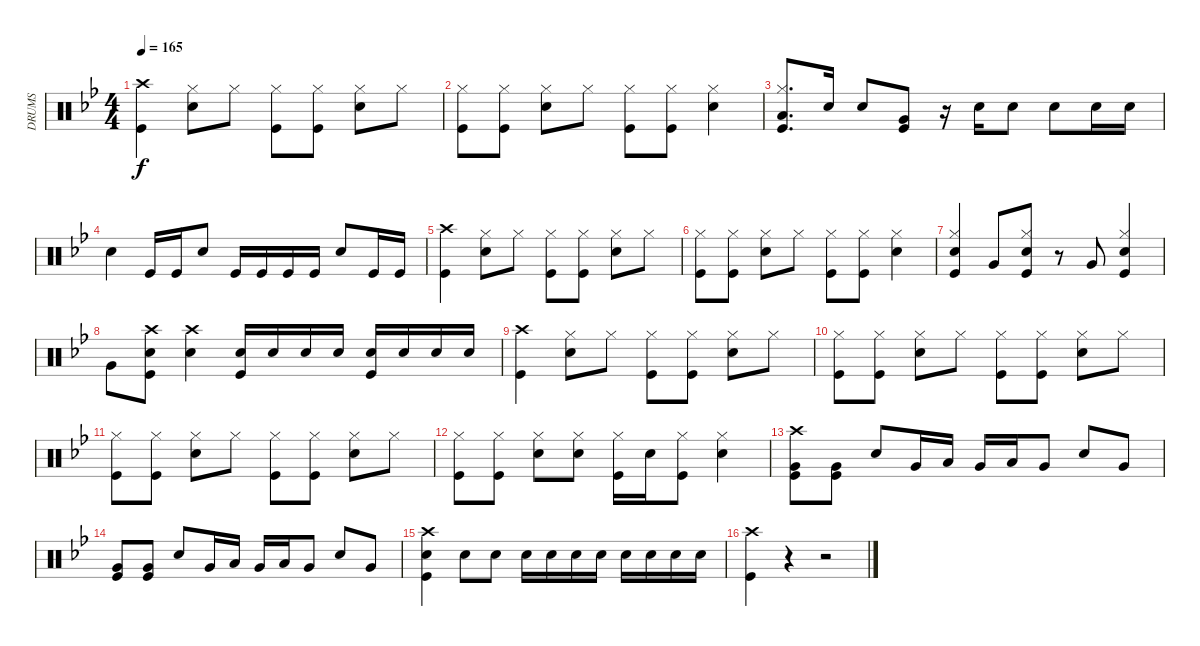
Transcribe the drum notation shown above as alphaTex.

\track ("DRUMS" "DRUMS") {instrument percussion}
\staff {score}
\articulation defaults
\ts (4 4)
\tempo 165
\clef neutral
\ks bb
("Crash high (hit)" "Kick (hit)").4{dy f} ("Hi-Hat (closed)" "Electric Snare (hit)").8 "Hi-Hat (closed)".8 ("Hi-Hat (closed)" "Kick (hit)").8 ("Hi-Hat (closed)" "Kick (hit)").8 ("Hi-Hat (closed)" "Electric Snare (hit)").8 "Hi-Hat (closed)".8 |
("Hi-Hat (closed)" "Kick (hit)").8 ("Hi-Hat (closed)" "Kick (hit)").8 ("Hi-Hat (closed)" "Electric Snare (hit)").8 "Hi-Hat (closed)".8 ("Hi-Hat (closed)" "Kick (hit)").8 ("Hi-Hat (closed)" "Kick (hit)").8 ("Hi-Hat (closed)" "Electric Snare (hit)").4 |
("Hi-Hat (closed)" "Low Tom (hit)" "Kick (hit)").8{d} "Electric Snare (hit)".16 "Electric Snare (hit)".8 ("Very Low Tom (hit)" "Kick (hit)").8 r.16 "Electric Snare (hit)".16 "Electric Snare (hit)".8 "Electric Snare (hit)".8 "Electric Snare (hit)".16 "Electric Snare (hit)".16 |
"Electric Snare (hit)".4 "Kick (hit)".16 "Kick (hit)".16 "Electric Snare (hit)".8 "Kick (hit)".16 "Kick (hit)".16 "Kick (hit)".16 "Kick (hit)".16 "Electric Snare (hit)".8 "Kick (hit)".16 "Kick (hit)".16 |
("Crash high (hit)" "Kick (hit)").4 ("Hi-Hat (closed)" "Electric Snare (hit)").8 "Hi-Hat (closed)".8 ("Hi-Hat (closed)" "Kick (hit)").8 ("Hi-Hat (closed)" "Kick (hit)").8 ("Hi-Hat (closed)" "Electric Snare (hit)").8 "Hi-Hat (closed)".8 |
("Hi-Hat (closed)" "Kick (hit)").8 ("Hi-Hat (closed)" "Kick (hit)").8 ("Hi-Hat (closed)" "Electric Snare (hit)").8 "Hi-Hat (closed)".8 ("Hi-Hat (closed)" "Kick (hit)").8 ("Hi-Hat (closed)" "Kick (hit)").8 ("Hi-Hat (closed)" "Electric Snare (hit)").4 |
("Hi-Hat (closed)" "Electric Snare (hit)" "Kick (hit)").4 "Very Low Tom (hit)".8 ("Hi-Hat (closed)" "Electric Snare (hit)" "Kick (hit)").8 r.8 "Very Low Tom (hit)".8 ("Hi-Hat (closed)" "Electric Snare (hit)" "Kick (hit)").4 |
"Very Low Tom (hit)".8 ("Crash high (hit)" "Electric Snare (hit)" "Kick (hit)").8 ("Crash high (hit)" "Electric Snare (hit)").4 ("Electric Snare (hit)" "Kick (hit)").16 "Electric Snare (hit)".16 "Electric Snare (hit)".16 "Electric Snare (hit)".16 ("Electric Snare (hit)" "Kick (hit)").16 "Electric Snare (hit)".16 "Electric Snare (hit)".16 "Electric Snare (hit)".16 |
("Crash high (hit)" "Kick (hit)").4 ("Hi-Hat (closed)" "Electric Snare (hit)").8 "Hi-Hat (closed)".8 ("Hi-Hat (closed)" "Kick (hit)").8 ("Hi-Hat (closed)" "Kick (hit)").8 ("Hi-Hat (closed)" "Electric Snare (hit)").8 "Hi-Hat (closed)".8 |
("Hi-Hat (closed)" "Kick (hit)").8 ("Hi-Hat (closed)" "Kick (hit)").8 ("Hi-Hat (closed)" "Electric Snare (hit)").8 "Hi-Hat (closed)".8 ("Hi-Hat (closed)" "Kick (hit)").8 ("Hi-Hat (closed)" "Kick (hit)").8 ("Hi-Hat (closed)" "Electric Snare (hit)").8 "Hi-Hat (closed)".8 |
("Hi-Hat (closed)" "Kick (hit)").8 ("Hi-Hat (closed)" "Kick (hit)").8 ("Hi-Hat (closed)" "Electric Snare (hit)").8 "Hi-Hat (closed)".8 ("Hi-Hat (closed)" "Kick (hit)").8 ("Hi-Hat (closed)" "Kick (hit)").8 ("Hi-Hat (closed)" "Electric Snare (hit)").8 "Hi-Hat (closed)".8 |
("Hi-Hat (closed)" "Kick (hit)").8 ("Hi-Hat (closed)" "Kick (hit)").8 ("Hi-Hat (closed)" "Electric Snare (hit)").8 ("Hi-Hat (closed)" "Electric Snare (hit)").8 ("Hi-Hat (closed)" "Kick (hit)").16 "Electric Snare (hit)".16 ("Hi-Hat (closed)" "Kick (hit)").8 ("Hi-Hat (closed)" "Electric Snare (hit)").4 |
("Crash high (hit)" "Very Low Tom (hit)" "Kick (hit)").8 ("Very Low Tom (hit)" "Kick (hit)").8 "Electric Snare (hit)".8 "Very Low Tom (hit)".16 "Low Tom (hit)".16 "Very Low Tom (hit)".16 "Low Tom (hit)".16 "Very Low Tom (hit)".8 "Electric Snare (hit)".8 "Very Low Tom (hit)".8 |
("Very Low Tom (hit)" "Kick (hit)").8 ("Very Low Tom (hit)" "Kick (hit)").8 "Electric Snare (hit)".8 "Very Low Tom (hit)".16 "Low Tom (hit)".16 "Very Low Tom (hit)".16 "Low Tom (hit)".16 "Very Low Tom (hit)".8 "Electric Snare (hit)".8 "Very Low Tom (hit)".8 |
("Crash high (hit)" "Electric Snare (hit)" "Kick (hit)").4 "Electric Snare (hit)".8 "Electric Snare (hit)".8 "Electric Snare (hit)".16 "Electric Snare (hit)".16 "Electric Snare (hit)".16 "Electric Snare (hit)".16 "Electric Snare (hit)".16 "Electric Snare (hit)".16 "Electric Snare (hit)".16 "Electric Snare (hit)".16 |
("Crash high (hit)" "Kick (hit)").4 r.4 r.2
